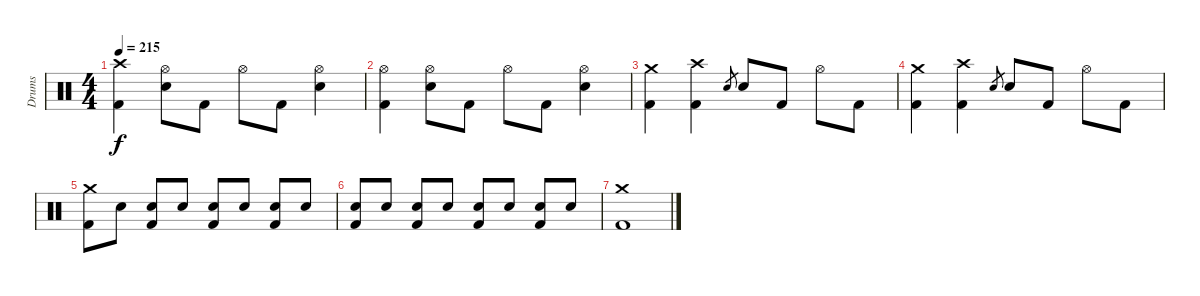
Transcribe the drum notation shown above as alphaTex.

\track ("Drums" "Drums") {instrument percussion}
\staff {score}
\articulation defaults
\ts (4 4)
\tempo 215
\clef neutral
\ks c
("Crash high (hit)" "Kick (hit) 2").4{dy f} ("Hi-Hat (open)" "Electric Snare (hit)").8 "Kick (hit) 2".8 "Hi-Hat (open)".8 "Kick (hit) 2".8 ("Hi-Hat (open)" "Electric Snare (hit)").4 |
("Hi-Hat (open)" "Kick (hit) 2").4 ("Hi-Hat (open)" "Electric Snare (hit)").8 "Kick (hit) 2".8 "Hi-Hat (open)".8 "Kick (hit) 2".8 ("Hi-Hat (open)" "Electric Snare (hit)").4 |
("Crash medium (hit)" "Kick (hit) 2").4 ("Crash high (hit)" "Kick (hit) 2").4 "Electric Snare (hit)".8{gr} "Electric Snare (hit)".8 "Kick (hit) 2".8 "Hi-Hat (open)".8 "Kick (hit) 2".8 |
("Crash medium (hit)" "Kick (hit) 2").4 ("Crash high (hit)" "Kick (hit) 2").4 "Electric Snare (hit)".8{gr} "Electric Snare (hit)".8 "Kick (hit) 2".8 "Hi-Hat (open)".8 "Kick (hit) 2".8 |
("Crash medium (hit)" "Kick (hit) 2").8 "Electric Snare (hit)".8{volume 9} ("Electric Snare (hit)" "Kick (hit) 2").8{volume 12} "Electric Snare (hit)".8 ("Electric Snare (hit)" "Kick (hit) 2").8 "Electric Snare (hit)".8 ("Electric Snare (hit)" "Kick (hit) 2").8 "Electric Snare (hit)".8 |
("Electric Snare (hit)" "Kick (hit) 2").8 "Electric Snare (hit)".8 ("Electric Snare (hit)" "Kick (hit) 2").8 "Electric Snare (hit)".8 ("Electric Snare (hit)" "Kick (hit) 2").8 "Electric Snare (hit)".8 ("Electric Snare (hit)" "Kick (hit) 2").8 "Electric Snare (hit)".8 |
("Crash medium (hit)" "Kick (hit) 2").1
